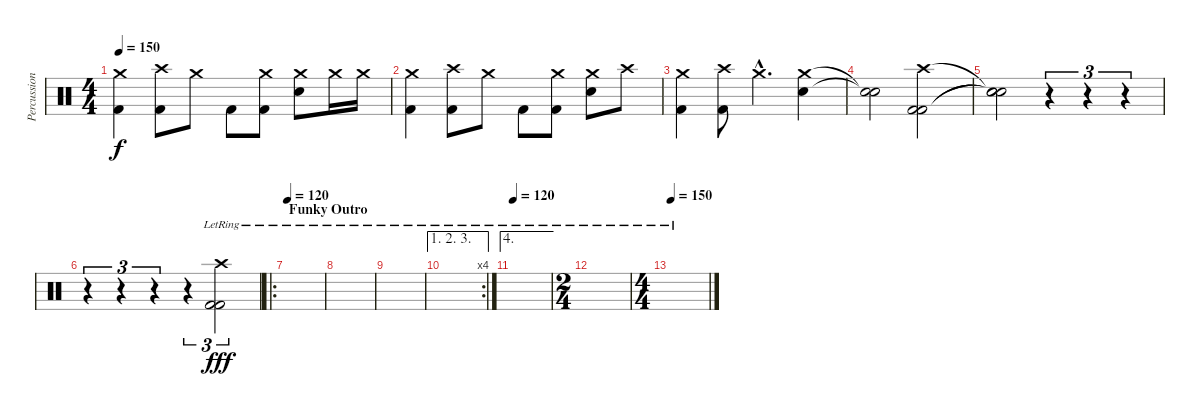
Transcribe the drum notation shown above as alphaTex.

\track ("Percussion" "Percussion") {instrument percussion}
\staff {score}
\articulation defaults
\ts (4 4)
\tempo 150
\clef neutral
\ks c
("Crash medium (hit)" "Kick (hit) 2").4{dy f} ("Crash high (hit)" "Kick (hit) 2").8 "Crash medium (hit)".8 "Kick (hit) 2".8 ("Crash medium (hit)" "Kick (hit) 2").8 ("Crash medium (hit)" "Snare (hit) 2").8 "Crash medium (hit)".16 "Crash medium (hit)".16 |
("Crash medium (hit)" "Kick (hit) 2").4 ("Crash high (hit)" "Kick (hit) 2").8 "Crash medium (hit)".8 "Kick (hit) 2".8 ("Crash medium (hit)" "Kick (hit) 2").8 ("Crash medium (hit)" "Snare (hit) 2").8 "Crash high (hit)".8 |
("Crash medium (hit)" "Kick (hit) 2").4 ("Crash high (hit)" "Kick (hit) 2").8 "Crash medium (hit)"{hac}.4{d} ("Crash medium (hit)" "Snare (hit) 2").4 |
("Snare (hit)"{t} "Snare (hit)"{t}).2 ("Crash high (hit)" "Kick (hit) 2" "Kick (hit) 2").2 |
("Snare (hit)"{t} "Snare (hit)"{t} "Snare (hit)"{t}).2 r.4{tu (3 2)} r.4{tu (3 2)} r.4{tu (3 2)} |
r.4{tu (3 2)} r.4{tu (3 2)} r.4{tu (3 2)} r.4{tu (3 2)} ("Crash high (hit)"{lr} "Kick (hit) 2" "Kick (hit) 2").2{tu (3 2) dy fff} |
\ro
\section ("" "Funky Outro")
\tempo 120
|
|
|
\ae (1 2 3)
\rc 4
|
\ae 4
\tempo 120
|
\ts (2 4)
|
\ts (4 4)
\tempo 150
